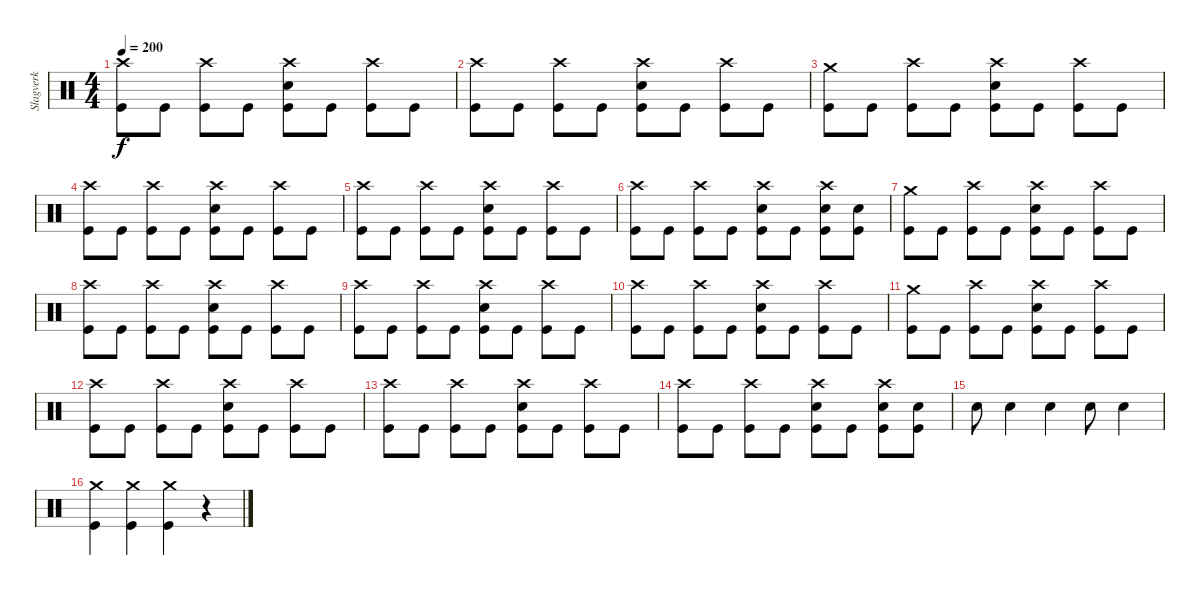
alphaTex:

\track ("Slagverk" "Slagverk") {instrument percussion}
\staff {score}
\articulation defaults
\ts (4 4)
\tempo 200
\clef neutral
\ks c
("Crash high (hit)" "Kick (hit)").8{dy f} "Kick (hit)".8 ("Crash high (hit)" "Kick (hit)").8 "Kick (hit)".8 ("Crash high (hit)" "Snare (hit) 2" "Kick (hit)").8 "Kick (hit)".8 ("Crash high (hit)" "Kick (hit)").8 "Kick (hit)".8 |
("Crash high (hit)" "Kick (hit)").8 "Kick (hit)".8 ("Crash high (hit)" "Kick (hit)").8 "Kick (hit)".8 ("Crash high (hit)" "Snare (hit) 2" "Kick (hit)").8 "Kick (hit)".8 ("Crash high (hit)" "Kick (hit)").8 "Kick (hit)".8 |
("Crash medium (hit)" "Kick (hit)").8 "Kick (hit)".8 ("Crash high (hit)" "Kick (hit)").8 "Kick (hit)".8 ("Crash high (hit)" "Snare (hit) 2" "Kick (hit)").8 "Kick (hit)".8 ("Crash high (hit)" "Kick (hit)").8 "Kick (hit)".8 |
("Crash high (hit)" "Kick (hit)").8 "Kick (hit)".8 ("Crash high (hit)" "Kick (hit)").8 "Kick (hit)".8 ("Crash high (hit)" "Snare (hit) 2" "Kick (hit)").8 "Kick (hit)".8 ("Crash high (hit)" "Kick (hit)").8 "Kick (hit)".8 |
("Crash high (hit)" "Kick (hit)").8 "Kick (hit)".8 ("Crash high (hit)" "Kick (hit)").8 "Kick (hit)".8 ("Crash high (hit)" "Snare (hit) 2" "Kick (hit)").8 "Kick (hit)".8 ("Crash high (hit)" "Kick (hit)").8 "Kick (hit)".8 |
("Crash high (hit)" "Kick (hit)").8 "Kick (hit)".8 ("Crash high (hit)" "Kick (hit)").8 "Kick (hit)".8 ("Crash high (hit)" "Snare (hit) 2" "Kick (hit)").8 "Kick (hit)".8 ("Crash high (hit)" "Snare (hit) 2" "Kick (hit)").8 ("Snare (hit) 2" "Kick (hit)").8 |
("Crash medium (hit)" "Kick (hit)").8 "Kick (hit)".8 ("Crash high (hit)" "Kick (hit)").8 "Kick (hit)".8 ("Crash high (hit)" "Snare (hit) 2" "Kick (hit)").8 "Kick (hit)".8 ("Crash high (hit)" "Kick (hit)").8 "Kick (hit)".8 |
("Crash high (hit)" "Kick (hit)").8 "Kick (hit)".8 ("Crash high (hit)" "Kick (hit)").8 "Kick (hit)".8 ("Crash high (hit)" "Snare (hit) 2" "Kick (hit)").8 "Kick (hit)".8 ("Crash high (hit)" "Kick (hit)").8 "Kick (hit)".8 |
("Crash high (hit)" "Kick (hit)").8 "Kick (hit)".8 ("Crash high (hit)" "Kick (hit)").8 "Kick (hit)".8 ("Crash high (hit)" "Snare (hit) 2" "Kick (hit)").8 "Kick (hit)".8 ("Crash high (hit)" "Kick (hit)").8 "Kick (hit)".8 |
("Crash high (hit)" "Kick (hit)").8 "Kick (hit)".8 ("Crash high (hit)" "Kick (hit)").8 "Kick (hit)".8 ("Crash high (hit)" "Snare (hit) 2" "Kick (hit)").8 "Kick (hit)".8 ("Crash high (hit)" "Kick (hit)").8 "Kick (hit)".8 |
("Crash medium (hit)" "Kick (hit)").8 "Kick (hit)".8 ("Crash high (hit)" "Kick (hit)").8 "Kick (hit)".8 ("Crash high (hit)" "Snare (hit) 2" "Kick (hit)").8 "Kick (hit)".8 ("Crash high (hit)" "Kick (hit)").8 "Kick (hit)".8 |
("Crash high (hit)" "Kick (hit)").8 "Kick (hit)".8 ("Crash high (hit)" "Kick (hit)").8 "Kick (hit)".8 ("Crash high (hit)" "Snare (hit) 2" "Kick (hit)").8 "Kick (hit)".8 ("Crash high (hit)" "Kick (hit)").8 "Kick (hit)".8 |
("Crash high (hit)" "Kick (hit)").8 "Kick (hit)".8 ("Crash high (hit)" "Kick (hit)").8 "Kick (hit)".8 ("Crash high (hit)" "Snare (hit) 2" "Kick (hit)").8 "Kick (hit)".8 ("Crash high (hit)" "Kick (hit)").8 "Kick (hit)".8 |
("Crash high (hit)" "Kick (hit)").8 "Kick (hit)".8 ("Crash high (hit)" "Kick (hit)").8 "Kick (hit)".8 ("Crash high (hit)" "Snare (hit) 2" "Kick (hit)").8 "Kick (hit)".8 ("Crash high (hit)" "Snare (hit) 2" "Kick (hit)").8 ("Snare (hit) 2" "Kick (hit)").8 |
"Snare (hit) 2".8 "Snare (hit) 2".4 "Snare (hit) 2".4 "Snare (hit) 2".8 "Snare (hit) 2".4 |
("Crash medium (hit)" "Kick (hit)").4 ("Crash medium (hit)" "Kick (hit)").4 ("Crash medium (hit)" "Kick (hit)").4 r.4
